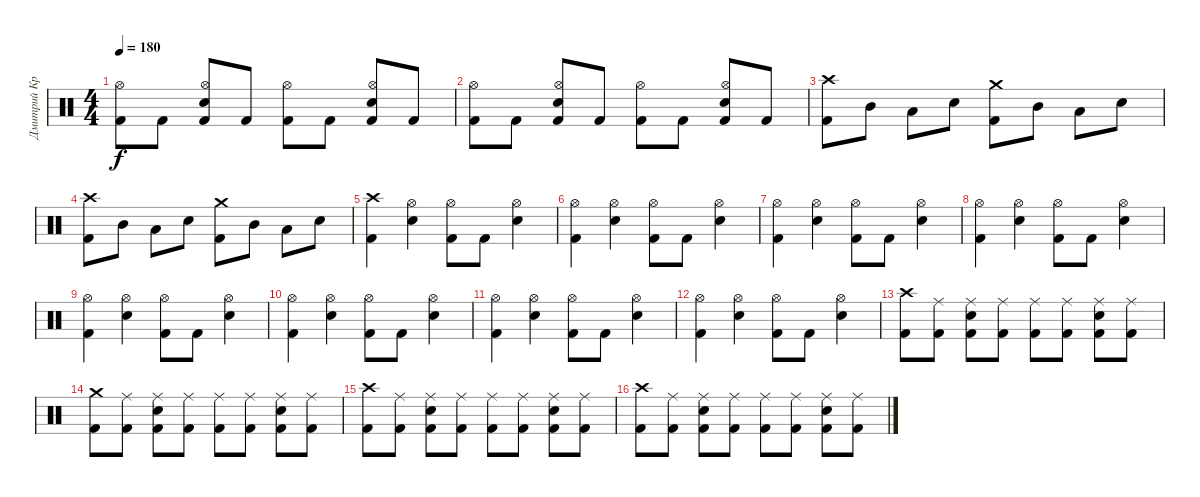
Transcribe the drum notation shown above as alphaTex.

\track ("Дмитрий Кривенков" "Дмитрий Кр") {instrument percussion}
\staff {score}
\articulation defaults
\ts (4 4)
\tempo 180
\clef neutral
\ks c
("Kick (hit) 2" "Hi-Hat (open)").8{dy f} "Kick (hit) 2".8 ("Kick (hit) 2" "Hi-Hat (open)" "Snare (hit) 2").8 "Kick (hit) 2".8 ("Kick (hit) 2" "Hi-Hat (open)").8 "Kick (hit) 2".8 ("Hi-Hat (open)" "Snare (hit) 2" "Kick (hit) 2").8 "Kick (hit) 2".8 |
("Kick (hit) 2" "Hi-Hat (open)").8 "Kick (hit) 2".8 ("Snare (hit) 2" "Kick (hit) 2" "Hi-Hat (open)").8 "Kick (hit) 2".8 ("Hi-Hat (open)" "Kick (hit) 2").8 "Kick (hit) 2".8 ("Hi-Hat (open)" "Kick (hit) 2" "Snare (hit) 2").8 "Kick (hit) 2".8 |
("Crash high (hit)" "Kick (hit) 2").8 "Mid Tom (hit)".8 "Low Tom (hit)".8 "Snare (hit) 2".8 ("Kick (hit) 2" "Crash medium (hit)").8 "Mid Tom (hit)".8 "Low Tom (hit)".8 "Snare (hit) 2".8 |
("Kick (hit) 2" "Crash high (hit)").8 "Mid Tom (hit)".8 "Low Tom (hit)".8 "Snare (hit) 2".8 ("Kick (hit) 2" "Crash medium (hit)").8 "Mid Tom (hit)".8 "Low Tom (hit)".8 "Snare (hit) 2".8 |
("Kick (hit) 2" "Crash high (hit)").4 ("Snare (hit) 2" "Hi-Hat (open)").4 ("Kick (hit) 2" "Hi-Hat (open)").8 "Kick (hit) 2".8 ("Snare (hit) 2" "Hi-Hat (open)").4 |
("Kick (hit) 2" "Hi-Hat (open)").4 ("Hi-Hat (open)" "Snare (hit) 2").4 ("Kick (hit) 2" "Hi-Hat (open)").8 "Kick (hit) 2".8 ("Snare (hit) 2" "Hi-Hat (open)").4 |
("Kick (hit) 2" "Hi-Hat (open)").4 ("Snare (hit) 2" "Hi-Hat (open)").4 ("Hi-Hat (open)" "Kick (hit) 2").8 "Kick (hit) 2".8 ("Hi-Hat (open)" "Snare (hit) 2").4 |
("Hi-Hat (open)" "Kick (hit) 2").4 ("Hi-Hat (open)" "Snare (hit) 2").4 ("Kick (hit) 2" "Hi-Hat (open)").8 "Kick (hit) 2".8 ("Snare (hit) 2" "Hi-Hat (open)").4 |
("Kick (hit) 2" "Hi-Hat (open)").4 ("Hi-Hat (open)" "Snare (hit) 2").4 ("Kick (hit) 2" "Hi-Hat (open)").8 "Kick (hit) 2".8 ("Hi-Hat (open)" "Snare (hit) 2").4 |
("Hi-Hat (open)" "Kick (hit) 2").4 ("Hi-Hat (open)" "Snare (hit) 2").4 ("Kick (hit) 2" "Hi-Hat (open)").8 "Kick (hit) 2".8 ("Snare (hit) 2" "Hi-Hat (open)").4 |
("Hi-Hat (open)" "Kick (hit) 2").4 ("Snare (hit) 2" "Hi-Hat (open)").4 ("Hi-Hat (open)" "Kick (hit) 2").8 "Kick (hit) 2".8 ("Snare (hit) 2" "Hi-Hat (open)").4 |
("Hi-Hat (open)" "Kick (hit) 2").4 ("Snare (hit) 2" "Hi-Hat (open)").4 ("Kick (hit) 2" "Hi-Hat (open)").8 "Kick (hit) 2".8 ("Snare (hit) 2" "Hi-Hat (open)").4 |
("Kick (hit) 2" "Crash high (hit)").8 ("Ride (middle)" "Kick (hit) 2").8 ("Kick (hit) 2" "Snare (hit) 2" "Ride (middle)").8 ("Ride (middle)" "Kick (hit) 2").8 ("Kick (hit) 2" "Ride (middle)").8 ("Kick (hit) 2" "Ride (middle)").8 ("Kick (hit) 2" "Ride (middle)" "Snare (hit) 2").8 ("Ride (middle)" "Kick (hit) 2").8 |
("Crash medium (hit)" "Kick (hit) 2").8 ("Kick (hit) 2" "Ride (middle)").8 ("Kick (hit) 2" "Ride (middle)" "Snare (hit) 2").8 ("Ride (middle)" "Kick (hit) 2").8 ("Kick (hit) 2" "Ride (middle)").8 ("Ride (middle)" "Kick (hit) 2").8 ("Snare (hit) 2" "Kick (hit) 2" "Ride (middle)").8 ("Ride (middle)" "Kick (hit) 2").8 |
("Crash high (hit)" "Kick (hit) 2").8 ("Ride (middle)" "Kick (hit) 2").8 ("Snare (hit) 2" "Ride (middle)" "Kick (hit) 2").8 ("Kick (hit) 2" "Ride (middle)").8 ("Ride (middle)" "Kick (hit) 2").8 ("Ride (middle)" "Kick (hit) 2").8 ("Kick (hit) 2" "Ride (middle)" "Snare (hit) 2").8 ("Kick (hit) 2" "Ride (middle)").8 |
("Kick (hit) 2" "Crash high (hit)").8 ("Ride (middle)" "Kick (hit) 2").8 ("Snare (hit) 2" "Ride (middle)" "Kick (hit) 2").8 ("Ride (middle)" "Kick (hit) 2").8 ("Kick (hit) 2" "Ride (middle)").8 ("Ride (middle)" "Kick (hit) 2").8 ("Kick (hit) 2" "Ride (middle)" "Snare (hit) 2").8 ("Ride (middle)" "Kick (hit) 2").8
